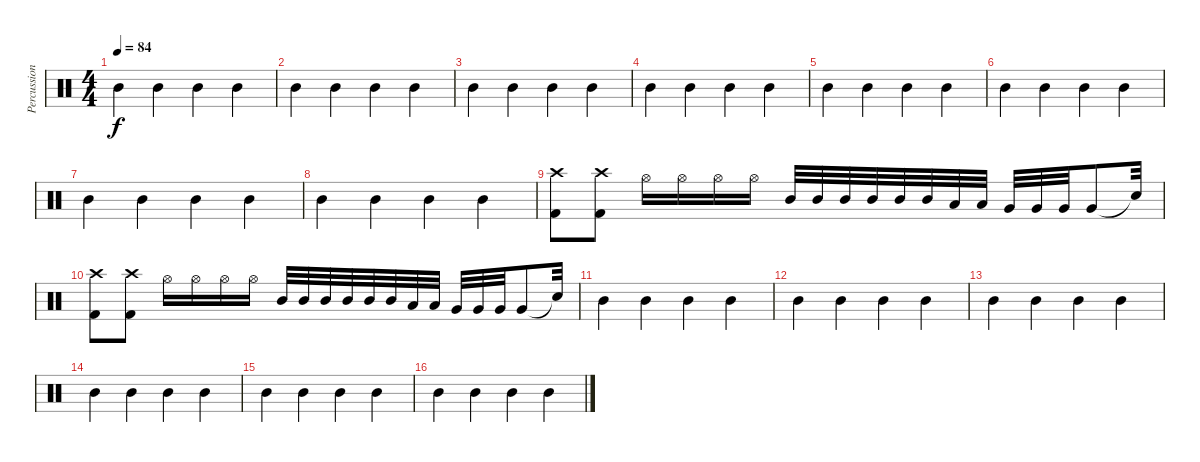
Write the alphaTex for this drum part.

\track ("Percussions" "Percussion") {instrument percussion}
\staff {score}
\articulation defaults
\ts (4 4)
\tempo 84
\clef neutral
\ks c "Mid Tom (hit)".4{dy f} "Mid Tom (hit)".4 "Mid Tom (hit)".4 "Mid Tom (hit)".4
|
"Mid Tom (hit)".4 "Mid Tom (hit)".4 "Mid Tom (hit)".4 "Mid Tom (hit)".4 |
"Mid Tom (hit)".4 "Mid Tom (hit)".4 "Mid Tom (hit)".4 "Mid Tom (hit)".4 |
"Mid Tom (hit)".4 "Mid Tom (hit)".4 "Mid Tom (hit)".4 "Mid Tom (hit)".4 |
"Mid Tom (hit)".4 "Mid Tom (hit)".4 "Mid Tom (hit)".4 "Mid Tom (hit)".4 |
"Mid Tom (hit)".4 "Mid Tom (hit)".4 "Mid Tom (hit)".4 "Mid Tom (hit)".4 |
"Mid Tom (hit)".4 "Mid Tom (hit)".4 "Mid Tom (hit)".4 "Mid Tom (hit)".4 |
"Mid Tom (hit)".4 "Mid Tom (hit)".4 "Mid Tom (hit)".4 "Mid Tom (hit)".4 |
("Kick (hit) 2" "Crash high (hit)").8 ("Kick (hit) 2" "Crash high (hit)").8 "Hi-Hat (open)".16 "Hi-Hat (open)".16 "Hi-Hat (open)".16 "Hi-Hat (open)".16 "Mid Tom (hit)".32 "Mid Tom (hit)".32 "Mid Tom (hit)".32 "Mid Tom (hit)".32 "Mid Tom (hit)".32 "Mid Tom (hit)".32 "Low Tom (hit)".32 "Low Tom (hit)".32 "Very Low Tom (hit)".32 "Very Low Tom (hit)".32 "Very Low Tom (hit)".32 "Very Low Tom (hit)".8 "Snare (hit)"{t}.32 |
("Kick (hit) 2" "Crash high (hit)").8 ("Kick (hit) 2" "Crash high (hit)").8 "Hi-Hat (open)".16 "Hi-Hat (open)".16 "Hi-Hat (open)".16 "Hi-Hat (open)".16 "Mid Tom (hit)".32 "Mid Tom (hit)".32 "Mid Tom (hit)".32 "Mid Tom (hit)".32 "Mid Tom (hit)".32 "Mid Tom (hit)".32 "Low Tom (hit)".32 "Low Tom (hit)".32 "Very Low Tom (hit)".32 "Very Low Tom (hit)".32 "Very Low Tom (hit)".32 "Very Low Tom (hit)".8 "Snare (hit)"{t}.32 |
"Mid Tom (hit)".4 "Mid Tom (hit)".4 "Mid Tom (hit)".4 "Mid Tom (hit)".4 |
"Mid Tom (hit)".4 "Mid Tom (hit)".4 "Mid Tom (hit)".4 "Mid Tom (hit)".4 |
"Mid Tom (hit)".4 "Mid Tom (hit)".4 "Mid Tom (hit)".4 "Mid Tom (hit)".4 |
"Mid Tom (hit)".4 "Mid Tom (hit)".4 "Mid Tom (hit)".4 "Mid Tom (hit)".4 |
"Mid Tom (hit)".4 "Mid Tom (hit)".4 "Mid Tom (hit)".4 "Mid Tom (hit)".4 |
"Mid Tom (hit)".4 "Mid Tom (hit)".4 "Mid Tom (hit)".4 "Mid Tom (hit)".4
